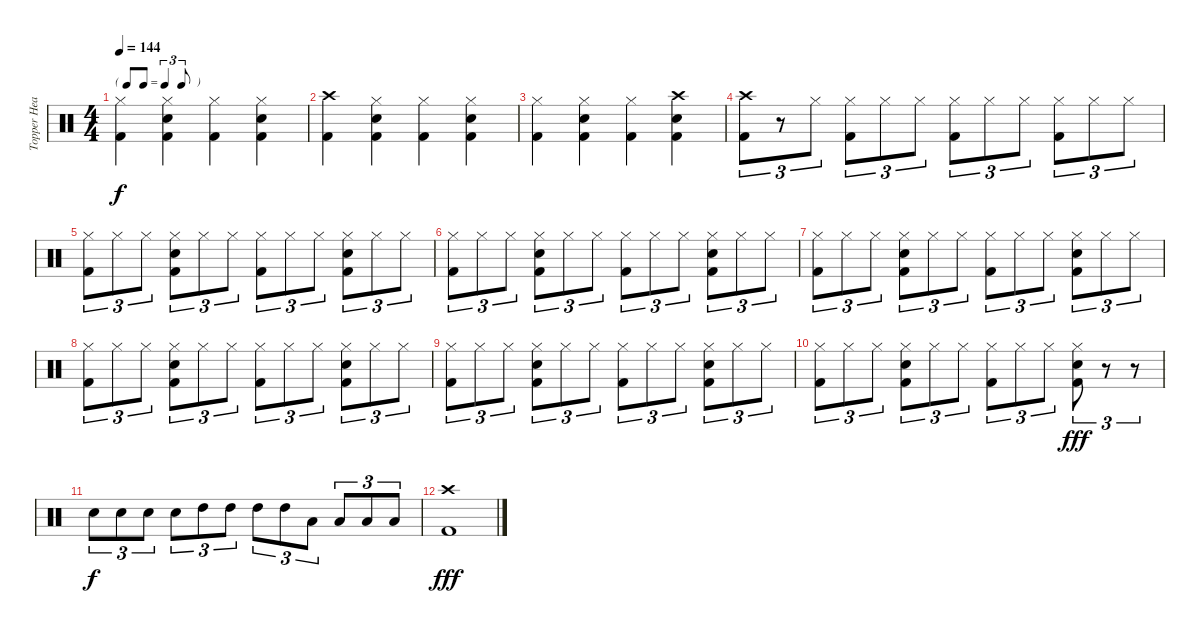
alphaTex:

\track ("Topper Headon" "Topper Hea") {instrument percussion}
\staff {score}
\articulation defaults
\ts (4 4)
\tf triplet8th
\tempo 144
\clef neutral
\ks c
("Hi-Hat (closed)" "Kick (hit) 2").4{dy f} ("Hi-Hat (closed)" "Snare (hit) 2" "Kick (hit) 2").4 ("Hi-Hat (closed)" "Kick (hit) 2").4 ("Hi-Hat (closed)" "Snare (hit) 2" "Kick (hit) 2").4 |
("Crash high (hit)" "Kick (hit) 2").4 ("Hi-Hat (closed)" "Snare (hit) 2" "Kick (hit) 2").4 ("Hi-Hat (closed)" "Kick (hit) 2").4 ("Hi-Hat (closed)" "Snare (hit) 2" "Kick (hit) 2").4 |
("Hi-Hat (closed)" "Kick (hit) 2").4 ("Hi-Hat (closed)" "Snare (hit) 2" "Kick (hit) 2").4 ("Hi-Hat (closed)" "Kick (hit) 2").4 ("Crash high (hit)" "Snare (hit) 2" "Kick (hit) 2").4 |
("Crash high (hit)" "Kick (hit) 2").8{tu (3 2)} r.8{tu (3 2)} "Hi-Hat (closed)".8{tu (3 2)} ("Hi-Hat (closed)" "Kick (hit) 2").8{tu (3 2)} "Hi-Hat (closed)".8{tu (3 2)} "Hi-Hat (closed)".8{tu (3 2)} ("Hi-Hat (closed)" "Kick (hit) 2").8{tu (3 2)} "Hi-Hat (closed)".8{tu (3 2)} "Hi-Hat (closed)".8{tu (3 2)} ("Hi-Hat (closed)" "Kick (hit) 2").8{tu (3 2)} "Hi-Hat (closed)".8{tu (3 2)} "Hi-Hat (closed)".8{tu (3 2)} |
("Hi-Hat (closed)" "Kick (hit) 2").8{tu (3 2)} "Hi-Hat (closed)".8{tu (3 2)} "Hi-Hat (closed)".8{tu (3 2)} ("Hi-Hat (closed)" "Snare (hit) 2" "Kick (hit) 2").8{tu (3 2)} "Hi-Hat (closed)".8{tu (3 2)} "Hi-Hat (closed)".8{tu (3 2)} ("Hi-Hat (closed)" "Kick (hit) 2").8{tu (3 2)} "Hi-Hat (closed)".8{tu (3 2)} "Hi-Hat (closed)".8{tu (3 2)} ("Hi-Hat (closed)" "Snare (hit) 2" "Kick (hit) 2").8{tu (3 2)} "Hi-Hat (closed)".8{tu (3 2)} "Hi-Hat (closed)".8{tu (3 2)} |
("Hi-Hat (closed)" "Kick (hit) 2").8{tu (3 2)} "Hi-Hat (closed)".8{tu (3 2)} "Hi-Hat (closed)".8{tu (3 2)} ("Hi-Hat (closed)" "Snare (hit) 2" "Kick (hit) 2").8{tu (3 2)} "Hi-Hat (closed)".8{tu (3 2)} "Hi-Hat (closed)".8{tu (3 2)} ("Hi-Hat (closed)" "Kick (hit) 2").8{tu (3 2)} "Hi-Hat (closed)".8{tu (3 2)} "Hi-Hat (closed)".8{tu (3 2)} ("Hi-Hat (closed)" "Snare (hit) 2" "Kick (hit) 2").8{tu (3 2)} "Hi-Hat (closed)".8{tu (3 2)} "Hi-Hat (closed)".8{tu (3 2)} |
("Hi-Hat (closed)" "Kick (hit) 2").8{tu (3 2)} "Hi-Hat (closed)".8{tu (3 2)} "Hi-Hat (closed)".8{tu (3 2)} ("Hi-Hat (closed)" "Snare (hit) 2" "Kick (hit) 2").8{tu (3 2)} "Hi-Hat (closed)".8{tu (3 2)} "Hi-Hat (closed)".8{tu (3 2)} ("Hi-Hat (closed)" "Kick (hit) 2").8{tu (3 2)} "Hi-Hat (closed)".8{tu (3 2)} "Hi-Hat (closed)".8{tu (3 2)} ("Hi-Hat (closed)" "Snare (hit) 2" "Kick (hit) 2").8{tu (3 2)} "Hi-Hat (closed)".8{tu (3 2)} "Hi-Hat (closed)".8{tu (3 2)} |
("Hi-Hat (closed)" "Kick (hit) 2").8{tu (3 2)} "Hi-Hat (closed)".8{tu (3 2)} "Hi-Hat (closed)".8{tu (3 2)} ("Hi-Hat (closed)" "Snare (hit) 2" "Kick (hit) 2").8{tu (3 2)} "Hi-Hat (closed)".8{tu (3 2)} "Hi-Hat (closed)".8{tu (3 2)} ("Hi-Hat (closed)" "Kick (hit) 2").8{tu (3 2)} "Hi-Hat (closed)".8{tu (3 2)} "Hi-Hat (closed)".8{tu (3 2)} ("Hi-Hat (closed)" "Snare (hit) 2" "Kick (hit) 2").8{tu (3 2)} "Hi-Hat (closed)".8{tu (3 2)} "Hi-Hat (closed)".8{tu (3 2)} |
("Hi-Hat (closed)" "Kick (hit) 2").8{tu (3 2)} "Hi-Hat (closed)".8{tu (3 2)} "Hi-Hat (closed)".8{tu (3 2)} ("Hi-Hat (closed)" "Snare (hit) 2" "Kick (hit) 2").8{tu (3 2)} "Hi-Hat (closed)".8{tu (3 2)} "Hi-Hat (closed)".8{tu (3 2)} ("Hi-Hat (closed)" "Kick (hit) 2").8{tu (3 2)} "Hi-Hat (closed)".8{tu (3 2)} "Hi-Hat (closed)".8{tu (3 2)} ("Hi-Hat (closed)" "Snare (hit) 2" "Kick (hit) 2").8{tu (3 2)} "Hi-Hat (closed)".8{tu (3 2)} "Hi-Hat (closed)".8{tu (3 2)} |
("Hi-Hat (closed)" "Kick (hit) 2").8{tu (3 2)} "Hi-Hat (closed)".8{tu (3 2)} "Hi-Hat (closed)".8{tu (3 2)} ("Hi-Hat (closed)" "Snare (hit) 2" "Kick (hit) 2").8{tu (3 2)} "Hi-Hat (closed)".8{tu (3 2)} "Hi-Hat (closed)".8{tu (3 2)} ("Hi-Hat (closed)" "Kick (hit) 2").8{tu (3 2)} "Hi-Hat (closed)".8{tu (3 2)} "Hi-Hat (closed)".8{tu (3 2)} ("Hi-Hat (closed)" "Snare (hit) 2" "Kick (hit) 2").8{tu (3 2) dy fff} r.8{tu (3 2)} r.8{tu (3 2)} |
"Snare (hit) 2".8{tu (3 2) dy f} "Snare (hit) 2".8{tu (3 2)} "Snare (hit) 2".8{tu (3 2)} "Snare (hit) 2".8{tu (3 2)} "High Tom (hit)".8{tu (3 2)} "High Tom (hit)".8{tu (3 2)} "High Tom (hit)".8{tu (3 2)} "High Tom (hit)".8{tu (3 2)} "Low Tom (hit)".8{tu (3 2)} "Low Tom (hit)".8{tu (3 2)} "Low Floor Tom (hit)".8{tu (3 2)} "Low Floor Tom (hit)".8{tu (3 2)} |
("Crash high (hit)" "Kick (hit) 2").1{dy fff}
